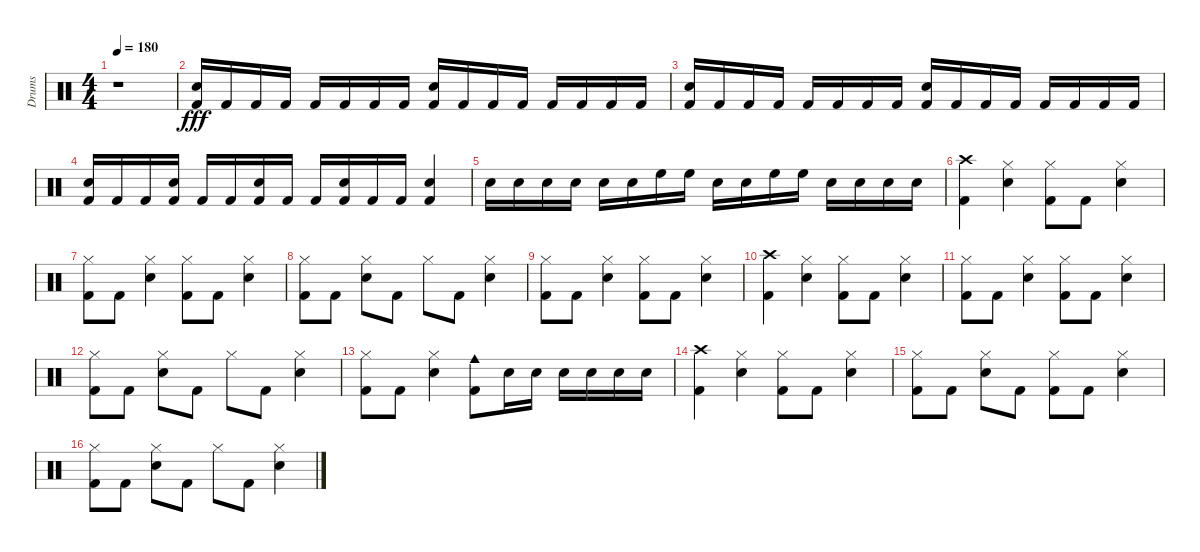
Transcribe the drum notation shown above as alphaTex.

\track ("Drums" "Drums") {instrument percussion}
\staff {score}
\articulation defaults
\ts (4 4)
\tempo 180
\clef neutral
\ks c
r.1{dy fff} |
("Kick (hit) 2" "Snare (hit) 2").16 "Kick (hit) 2".16 "Kick (hit) 2".16 "Kick (hit) 2".16 "Kick (hit) 2".16 "Kick (hit) 2".16 "Kick (hit) 2".16 "Kick (hit) 2".16 ("Snare (hit) 2" "Kick (hit) 2").16 "Kick (hit) 2".16 "Kick (hit) 2".16 "Kick (hit) 2".16 "Kick (hit) 2".16 "Kick (hit) 2".16 "Kick (hit) 2".16 "Kick (hit) 2".16 |
("Snare (hit) 2" "Kick (hit) 2").16 "Kick (hit) 2".16 "Kick (hit) 2".16 "Kick (hit) 2".16 "Kick (hit) 2".16 "Kick (hit) 2".16 "Kick (hit) 2".16 "Kick (hit) 2".16 ("Snare (hit) 2" "Kick (hit) 2").16 "Kick (hit) 2".16 "Kick (hit) 2".16 "Kick (hit) 2".16 "Kick (hit) 2".16 "Kick (hit) 2".16 "Kick (hit) 2".16 "Kick (hit) 2".16 |
("Snare (hit) 2" "Kick (hit) 2").16 "Kick (hit) 2".16 "Kick (hit) 2".16 ("Snare (hit) 2" "Kick (hit) 2").16 "Kick (hit) 2".16 "Kick (hit) 2".16 ("Snare (hit) 2" "Kick (hit) 2").16 "Kick (hit) 2".16 "Kick (hit) 2".16 ("Snare (hit) 2" "Kick (hit) 2").16 "Kick (hit) 2".16 "Kick (hit) 2".16 ("Snare (hit) 2" "Kick (hit) 2").4 |
"Snare (hit) 2".16 "Snare (hit) 2".16 "Snare (hit) 2".16 "Snare (hit) 2".16 "Snare (hit) 2".16 "Snare (hit) 2".16 "High Floor Tom (hit)".16 "High Floor Tom (hit)".16 "Snare (hit) 2".16 "Snare (hit) 2".16 "High Floor Tom (hit)".16 "High Floor Tom (hit)".16 "Snare (hit) 2".16 "Snare (hit) 2".16 "Snare (hit) 2".16 "Snare (hit) 2".16 |
("Crash high (hit)" "Kick (hit) 2").4 ("Snare (hit) 2" "Hi-Hat (closed)").4 ("Kick (hit) 2" "Hi-Hat (closed)").8 "Kick (hit) 2".8 ("Snare (hit) 2" "Hi-Hat (closed)").4 |
("Kick (hit) 2" "Hi-Hat (closed)").8 "Kick (hit) 2".8 ("Snare (hit) 2" "Hi-Hat (closed)").4 ("Kick (hit) 2" "Hi-Hat (closed)").8 "Kick (hit) 2".8 ("Snare (hit) 2" "Hi-Hat (closed)").4 |
("Kick (hit) 2" "Hi-Hat (closed)").8 "Kick (hit) 2".8 ("Snare (hit) 2" "Hi-Hat (closed)").8 "Kick (hit) 2".8 "Hi-Hat (closed)".8 "Kick (hit) 2".8 ("Snare (hit) 2" "Hi-Hat (closed)").4 |
("Kick (hit) 2" "Hi-Hat (closed)").8 "Kick (hit) 2".8 ("Snare (hit) 2" "Hi-Hat (closed)").4 ("Kick (hit) 2" "Hi-Hat (closed)").8 "Kick (hit) 2".8 ("Snare (hit) 2" "Hi-Hat (closed)").4 |
("Crash high (hit)" "Kick (hit) 2").4 ("Snare (hit) 2" "Hi-Hat (closed)").4 ("Kick (hit) 2" "Hi-Hat (closed)").8 "Kick (hit) 2".8 ("Snare (hit) 2" "Hi-Hat (closed)").4 |
("Kick (hit) 2" "Hi-Hat (closed)").8 "Kick (hit) 2".8 ("Snare (hit) 2" "Hi-Hat (closed)").4 ("Kick (hit) 2" "Hi-Hat (closed)").8 "Kick (hit) 2".8 ("Snare (hit) 2" "Hi-Hat (closed)").4 |
("Kick (hit) 2" "Hi-Hat (closed)").8 "Kick (hit) 2".8 ("Snare (hit) 2" "Hi-Hat (closed)").8 "Kick (hit) 2".8 "Hi-Hat (closed)".8 "Kick (hit) 2".8 ("Snare (hit) 2" "Hi-Hat (closed)").4 |
("Kick (hit) 2" "Hi-Hat (closed)").8 "Kick (hit) 2".8 ("Hi-Hat (closed)" "Snare (hit) 2").4 ("Kick (hit) 2" "Cowbell medium (hit)").8 "Snare (hit) 2".16 "Snare (hit) 2".16 "Snare (hit) 2".16 "Snare (hit) 2".16 "Snare (hit) 2".16 "Snare (hit) 2".16 |
("Crash high (hit)" "Kick (hit) 2").4 ("Snare (hit) 2" "Hi-Hat (closed)").4 ("Kick (hit) 2" "Hi-Hat (closed)").8 "Kick (hit) 2".8 ("Snare (hit) 2" "Hi-Hat (closed)").4 |
("Kick (hit) 2" "Hi-Hat (closed)").8 "Kick (hit) 2".8 ("Snare (hit) 2" "Hi-Hat (closed)").8 "Kick (hit) 2".8 ("Kick (hit) 2" "Hi-Hat (closed)").8 "Kick (hit) 2".8 ("Snare (hit) 2" "Hi-Hat (closed)").4 |
("Kick (hit) 2" "Hi-Hat (closed)").8 "Kick (hit) 2".8 ("Snare (hit) 2" "Hi-Hat (closed)").8 "Kick (hit) 2".8 "Hi-Hat (closed)".8 "Kick (hit) 2".8 ("Snare (hit) 2" "Hi-Hat (closed)").4
